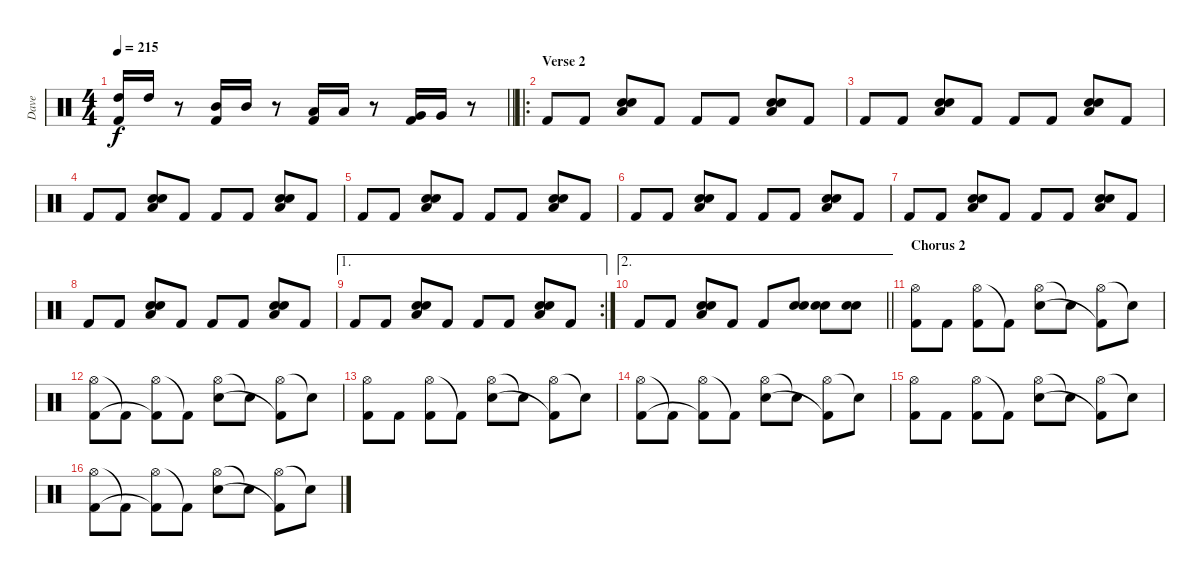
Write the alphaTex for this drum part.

\track ("Dave" "Dave") {instrument percussion}
\staff {score}
\articulation defaults
\ts (4 4)
\tempo 215
\clef neutral
\barLineRight lightlight
\ks c
("Kick (hit) 2" "High Tom (hit)").16{dy f} "High Tom (hit)".16 r.8 ("Kick (hit) 2" "Mid Tom (hit)").16 "Mid Tom (hit)".16 r.8 ("Kick (hit) 2" "Low Tom (hit)").16 "Low Tom (hit)".16 r.8 ("Kick (hit) 2" "Very Low Tom (hit)").16 "Very Low Tom (hit)".16 r.8 |
\ro
\section ("" "Verse 2")
"Kick (hit) 2".8 "Kick (hit) 2".8 ("Low Floor Tom (hit)" "Electric Snare (hit)" "Electric Snare (hit)").8 "Kick (hit) 2".8 "Kick (hit) 2".8 "Kick (hit) 2".8 ("Low Floor Tom (hit)" "Electric Snare (hit)" "Electric Snare (hit)").8 "Kick (hit) 2".8 |
"Kick (hit) 2".8 "Kick (hit) 2".8 ("Low Floor Tom (hit)" "Electric Snare (hit)" "Electric Snare (hit)").8 "Kick (hit) 2".8 "Kick (hit) 2".8 "Kick (hit) 2".8 ("Low Floor Tom (hit)" "Electric Snare (hit)" "Electric Snare (hit)").8 "Kick (hit) 2".8 |
"Kick (hit) 2".8 "Kick (hit) 2".8 ("Low Floor Tom (hit)" "Electric Snare (hit)" "Electric Snare (hit)").8 "Kick (hit) 2".8 "Kick (hit) 2".8 "Kick (hit) 2".8 ("Low Floor Tom (hit)" "Electric Snare (hit)" "Electric Snare (hit)").8 "Kick (hit) 2".8 |
"Kick (hit) 2".8 "Kick (hit) 2".8 ("Low Floor Tom (hit)" "Electric Snare (hit)" "Electric Snare (hit)").8 "Kick (hit) 2".8 "Kick (hit) 2".8 "Kick (hit) 2".8 ("Low Floor Tom (hit)" "Electric Snare (hit)" "Electric Snare (hit)").8 "Kick (hit) 2".8 |
"Kick (hit) 2".8 "Kick (hit) 2".8 ("Low Floor Tom (hit)" "Electric Snare (hit)" "Electric Snare (hit)").8 "Kick (hit) 2".8 "Kick (hit) 2".8 "Kick (hit) 2".8 ("Low Floor Tom (hit)" "Electric Snare (hit)" "Electric Snare (hit)").8 "Kick (hit) 2".8 |
"Kick (hit) 2".8 "Kick (hit) 2".8 ("Low Floor Tom (hit)" "Electric Snare (hit)" "Electric Snare (hit)").8 "Kick (hit) 2".8 "Kick (hit) 2".8 "Kick (hit) 2".8 ("Low Floor Tom (hit)" "Electric Snare (hit)" "Electric Snare (hit)").8 "Kick (hit) 2".8 |
"Kick (hit) 2".8 "Kick (hit) 2".8 ("Low Floor Tom (hit)" "Electric Snare (hit)" "Electric Snare (hit)").8 "Kick (hit) 2".8 "Kick (hit) 2".8 "Kick (hit) 2".8 ("Low Floor Tom (hit)" "Electric Snare (hit)" "Electric Snare (hit)").8 "Kick (hit) 2".8 |
\ae 1
\rc 2 "Kick (hit) 2".8 "Kick (hit) 2".8
("Low Floor Tom (hit)" "Electric Snare (hit)" "Electric Snare (hit)").8 "Kick (hit) 2".8 "Kick (hit) 2".8 "Kick (hit) 2".8 ("Low Floor Tom (hit)" "Electric Snare (hit)" "Electric Snare (hit)").8 "Kick (hit) 2".8 |
\ae 2
\barLineRight lightlight "Kick (hit) 2".8 "Kick (hit) 2".8
("Low Floor Tom (hit)" "Electric Snare (hit)" "Electric Snare (hit)").8 "Kick (hit) 2".8 "Kick (hit) 2".8 ("Electric Snare (hit)" "Electric Snare (hit)").8 ("Electric Snare (hit)" "Electric Snare (hit)").8 ("Electric Snare (hit)" "Electric Snare (hit)").8 |
\section ("" "Chorus 2")
("Hi-Hat (open)" "Kick (hit) 2").8 "Kick (hit) 2".8 ("Hi-Hat (open)" "Kick (hit) 2").8 "Kick (hit) 2"{t}.8 ("Hi-Hat (open)" "Electric Snare (hit)").8 "Snare (hit)"{t}.8 ("Hi-Hat (open)" "Kick (hit) 2"{t}).8 "Snare (hit)"{t}.8 |
("Hi-Hat (open)" "Kick (hit) 2").8 "Kick (hit) 2"{t}.8 ("Hi-Hat (open)" "Kick (hit) 2"{t}).8 "Kick (hit) 2"{t}.8 ("Hi-Hat (open)" "Electric Snare (hit)").8 "Snare (hit)"{t}.8 ("Hi-Hat (open)" "Kick (hit) 2"{t}).8 "Snare (hit)"{t}.8 |
("Hi-Hat (open)" "Kick (hit) 2").8 "Kick (hit) 2".8 ("Hi-Hat (open)" "Kick (hit) 2").8 "Kick (hit) 2"{t}.8 ("Hi-Hat (open)" "Electric Snare (hit)").8 "Snare (hit)"{t}.8 ("Hi-Hat (open)" "Kick (hit) 2"{t}).8 "Snare (hit)"{t}.8 |
("Hi-Hat (open)" "Kick (hit) 2").8 "Kick (hit) 2"{t}.8 ("Hi-Hat (open)" "Kick (hit) 2"{t}).8 "Kick (hit) 2"{t}.8 ("Hi-Hat (open)" "Electric Snare (hit)").8 "Snare (hit)"{t}.8 ("Hi-Hat (open)" "Kick (hit) 2"{t}).8 "Snare (hit)"{t}.8 |
("Hi-Hat (open)" "Kick (hit) 2").8 "Kick (hit) 2".8 ("Hi-Hat (open)" "Kick (hit) 2").8 "Kick (hit) 2"{t}.8 ("Hi-Hat (open)" "Electric Snare (hit)").8 "Snare (hit)"{t}.8 ("Hi-Hat (open)" "Kick (hit) 2"{t}).8 "Snare (hit)"{t}.8 |
("Hi-Hat (open)" "Kick (hit) 2").8 "Kick (hit) 2"{t}.8 ("Hi-Hat (open)" "Kick (hit) 2"{t}).8 "Kick (hit) 2"{t}.8 ("Hi-Hat (open)" "Electric Snare (hit)").8 "Snare (hit)"{t}.8 ("Hi-Hat (open)" "Kick (hit) 2"{t}).8 "Snare (hit)"{t}.8
